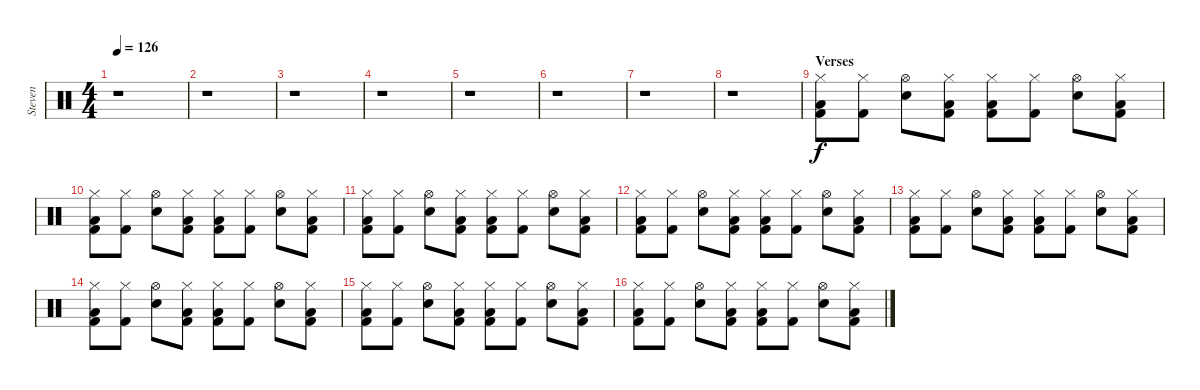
\track ("Steven" "Steven") {instrument percussion}
\staff {score}
\articulation defaults
\ts (4 4)
\tempo 126
\clef neutral
\ks c
r.1{dy f} |
r.1 |
r.1 |
r.1 |
r.1 |
r.1 |
r.1 |
r.1 |
\section ("" "Verses")
("Hi-Hat (closed)" "Kick (hit) 2" "Low Floor Tom (hit)").8 ("Kick (hit) 2" "Hi-Hat (closed)").8 ("Hi-Hat (open)" "Snare (hit) 2").8 ("Hi-Hat (closed)" "Kick (hit) 2" "Low Floor Tom (hit)").8 ("Hi-Hat (closed)" "Kick (hit) 2" "Low Floor Tom (hit)").8 ("Kick (hit) 2" "Hi-Hat (closed)").8 ("Hi-Hat (open)" "Snare (hit) 2").8 ("Hi-Hat (closed)" "Kick (hit) 2" "Low Floor Tom (hit)").8 |
("Hi-Hat (closed)" "Kick (hit) 2" "Low Floor Tom (hit)").8 ("Kick (hit) 2" "Hi-Hat (closed)").8 ("Hi-Hat (open)" "Snare (hit) 2").8 ("Hi-Hat (closed)" "Kick (hit) 2" "Low Floor Tom (hit)").8 ("Hi-Hat (closed)" "Kick (hit) 2" "Low Floor Tom (hit)").8 ("Kick (hit) 2" "Hi-Hat (closed)").8 ("Hi-Hat (open)" "Snare (hit) 2").8 ("Hi-Hat (closed)" "Kick (hit) 2" "Low Floor Tom (hit)").8 |
("Hi-Hat (closed)" "Kick (hit) 2" "Low Floor Tom (hit)").8 ("Kick (hit) 2" "Hi-Hat (closed)").8 ("Hi-Hat (open)" "Snare (hit) 2").8 ("Hi-Hat (closed)" "Kick (hit) 2" "Low Floor Tom (hit)").8 ("Hi-Hat (closed)" "Kick (hit) 2" "Low Floor Tom (hit)").8 ("Kick (hit) 2" "Hi-Hat (closed)").8 ("Hi-Hat (open)" "Snare (hit) 2").8 ("Hi-Hat (closed)" "Kick (hit) 2" "Low Floor Tom (hit)").8 |
("Hi-Hat (closed)" "Kick (hit) 2" "Low Floor Tom (hit)").8 ("Kick (hit) 2" "Hi-Hat (closed)").8 ("Hi-Hat (open)" "Snare (hit) 2").8 ("Hi-Hat (closed)" "Kick (hit) 2" "Low Floor Tom (hit)").8 ("Hi-Hat (closed)" "Kick (hit) 2" "Low Floor Tom (hit)").8 ("Kick (hit) 2" "Hi-Hat (closed)").8 ("Hi-Hat (open)" "Snare (hit) 2").8 ("Hi-Hat (closed)" "Kick (hit) 2" "Low Floor Tom (hit)").8 |
("Hi-Hat (closed)" "Kick (hit) 2" "Low Floor Tom (hit)").8 ("Kick (hit) 2" "Hi-Hat (closed)").8 ("Hi-Hat (open)" "Snare (hit) 2").8 ("Hi-Hat (closed)" "Kick (hit) 2" "Low Floor Tom (hit)").8 ("Hi-Hat (closed)" "Kick (hit) 2" "Low Floor Tom (hit)").8 ("Kick (hit) 2" "Hi-Hat (closed)").8 ("Hi-Hat (open)" "Snare (hit) 2").8 ("Hi-Hat (closed)" "Kick (hit) 2" "Low Floor Tom (hit)").8 |
("Hi-Hat (closed)" "Kick (hit) 2" "Low Floor Tom (hit)").8 ("Kick (hit) 2" "Hi-Hat (closed)").8 ("Hi-Hat (open)" "Snare (hit) 2").8 ("Hi-Hat (closed)" "Kick (hit) 2" "Low Floor Tom (hit)").8 ("Hi-Hat (closed)" "Kick (hit) 2" "Low Floor Tom (hit)").8 ("Kick (hit) 2" "Hi-Hat (closed)").8 ("Hi-Hat (open)" "Snare (hit) 2").8 ("Hi-Hat (closed)" "Kick (hit) 2" "Low Floor Tom (hit)").8 |
("Hi-Hat (closed)" "Kick (hit) 2" "Low Floor Tom (hit)").8 ("Kick (hit) 2" "Hi-Hat (closed)").8 ("Hi-Hat (open)" "Snare (hit) 2").8 ("Hi-Hat (closed)" "Kick (hit) 2" "Low Floor Tom (hit)").8 ("Hi-Hat (closed)" "Kick (hit) 2" "Low Floor Tom (hit)").8 ("Kick (hit) 2" "Hi-Hat (closed)").8 ("Hi-Hat (open)" "Snare (hit) 2").8 ("Hi-Hat (closed)" "Kick (hit) 2" "Low Floor Tom (hit)").8 |
("Hi-Hat (closed)" "Kick (hit) 2" "Low Floor Tom (hit)").8 ("Kick (hit) 2" "Hi-Hat (closed)").8 ("Hi-Hat (open)" "Snare (hit) 2").8 ("Hi-Hat (closed)" "Kick (hit) 2" "Low Floor Tom (hit)").8 ("Hi-Hat (closed)" "Kick (hit) 2" "Low Floor Tom (hit)").8 ("Kick (hit) 2" "Hi-Hat (closed)").8 ("Hi-Hat (open)" "Snare (hit) 2").8 ("Hi-Hat (closed)" "Kick (hit) 2" "Low Floor Tom (hit)").8
